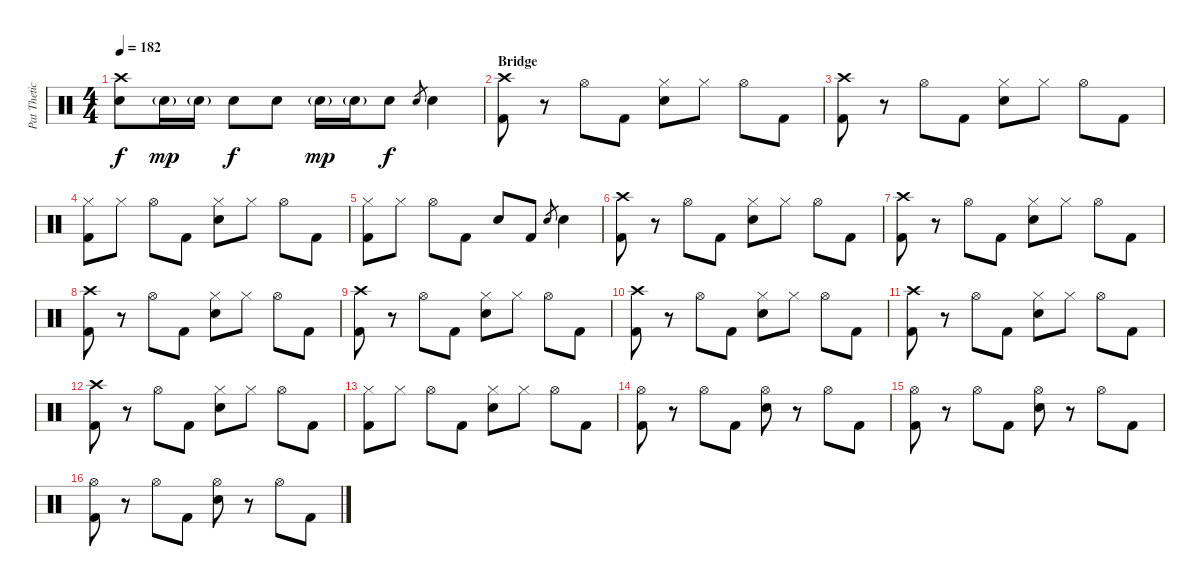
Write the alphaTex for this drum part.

\track ("Pat Thetic - Drums" "Pat Thetic") {instrument percussion}
\staff {score}
\articulation defaults
\ts (4 4)
\tempo 182
\clef neutral
\ks c
("Crash high (hit)" "Electric Snare (hit)").8{dy f} "Snare (hit) 2"{g}.16{dy mp} "Snare (hit) 2"{g}.16 "Electric Snare (hit)".8{dy f} "Electric Snare (hit)".8 "Snare (hit) 2"{g}.16{dy mp} "Snare (hit) 2"{g}.16 "Electric Snare (hit)".8{dy f} "Electric Snare (hit)".8{gr} "Electric Snare (hit)".4 |
\section ("" "Bridge")
("Crash high (hit)" "Kick (hit) 2").8 r.8 "Hi-Hat (open)".8 "Kick (hit) 2".8 ("Hi-Hat (closed)" "Electric Snare (hit)").8 "Hi-Hat (closed)".8 "Hi-Hat (open)".8 "Kick (hit) 2".8 |
("Crash high (hit)" "Kick (hit) 2").8 r.8 "Hi-Hat (open)".8 "Kick (hit) 2".8 ("Hi-Hat (closed)" "Electric Snare (hit)").8 "Hi-Hat (closed)".8 "Hi-Hat (open)".8 "Kick (hit) 2".8 |
("Hi-Hat (closed)" "Kick (hit) 2").8 "Hi-Hat (closed)".8 "Hi-Hat (open)".8 "Kick (hit) 2".8 ("Hi-Hat (closed)" "Electric Snare (hit)").8 "Hi-Hat (closed)".8 "Hi-Hat (open)".8 "Kick (hit) 2".8 |
("Hi-Hat (closed)" "Kick (hit) 2").8 "Hi-Hat (closed)".8 "Hi-Hat (open)".8 "Kick (hit) 2".8 "Electric Snare (hit)".8 "Kick (hit) 2".8 "Electric Snare (hit)".8{gr} "Electric Snare (hit)".4 |
("Crash high (hit)" "Kick (hit) 2").8 r.8 "Hi-Hat (open)".8 "Kick (hit) 2".8 ("Hi-Hat (closed)" "Electric Snare (hit)").8 "Hi-Hat (closed)".8 "Hi-Hat (open)".8 "Kick (hit) 2".8 |
("Crash high (hit)" "Kick (hit) 2").8 r.8 "Hi-Hat (open)".8 "Kick (hit) 2".8 ("Hi-Hat (closed)" "Electric Snare (hit)").8 "Hi-Hat (closed)".8 "Hi-Hat (open)".8 "Kick (hit) 2".8 |
("Crash high (hit)" "Kick (hit) 2").8 r.8 "Hi-Hat (open)".8 "Kick (hit) 2".8 ("Hi-Hat (closed)" "Electric Snare (hit)").8 "Hi-Hat (closed)".8 "Hi-Hat (open)".8 "Kick (hit) 2".8 |
("Crash high (hit)" "Kick (hit) 2").8 r.8 "Hi-Hat (open)".8 "Kick (hit) 2".8 ("Hi-Hat (closed)" "Electric Snare (hit)").8 "Hi-Hat (closed)".8 "Hi-Hat (open)".8 "Kick (hit) 2".8 |
("Crash high (hit)" "Kick (hit) 2").8 r.8 "Hi-Hat (open)".8 "Kick (hit) 2".8 ("Hi-Hat (closed)" "Electric Snare (hit)").8 "Hi-Hat (closed)".8 "Hi-Hat (open)".8 "Kick (hit) 2".8 |
("Crash high (hit)" "Kick (hit) 2").8 r.8 "Hi-Hat (open)".8 "Kick (hit) 2".8 ("Hi-Hat (closed)" "Electric Snare (hit)").8 "Hi-Hat (closed)".8 "Hi-Hat (open)".8 "Kick (hit) 2".8 |
("Crash high (hit)" "Kick (hit) 2").8 r.8 "Hi-Hat (open)".8 "Kick (hit) 2".8 ("Hi-Hat (closed)" "Electric Snare (hit)").8 "Hi-Hat (closed)".8 "Hi-Hat (open)".8 "Kick (hit) 2".8 |
("Hi-Hat (closed)" "Kick (hit) 2").8 "Hi-Hat (closed)".8 "Hi-Hat (open)".8 "Kick (hit) 2".8 ("Hi-Hat (closed)" "Electric Snare (hit)").8 "Hi-Hat (closed)".8 "Hi-Hat (open)".8 "Kick (hit) 2".8 |
("Hi-Hat (open)" "Kick (hit) 2").8 r.8 "Hi-Hat (open)".8 "Kick (hit) 2".8 ("Hi-Hat (open)" "Electric Snare (hit)").8 r.8 "Hi-Hat (open)".8 "Kick (hit) 2".8 |
("Hi-Hat (open)" "Kick (hit) 2").8 r.8 "Hi-Hat (open)".8 "Kick (hit) 2".8 ("Hi-Hat (open)" "Electric Snare (hit)").8 r.8 "Hi-Hat (open)".8 "Kick (hit) 2".8 |
("Hi-Hat (open)" "Kick (hit) 2").8 r.8 "Hi-Hat (open)".8 "Kick (hit) 2".8 ("Hi-Hat (open)" "Electric Snare (hit)").8 r.8 "Hi-Hat (open)".8 "Kick (hit) 2".8
